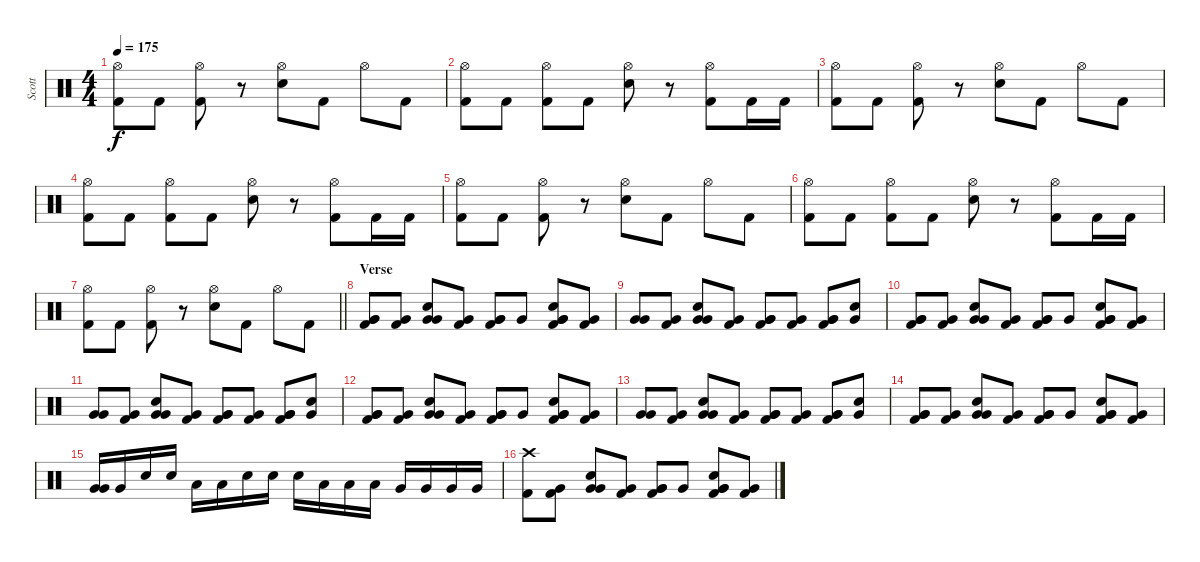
\track ("Scott" "Scott") {instrument percussion}
\staff {score}
\articulation defaults
\ts (4 4)
\tempo 175
\clef neutral
\ks c
("Hi-Hat (open)" "Kick (hit) 2").8{dy f} "Kick (hit) 2".8 ("Hi-Hat (open)" "Kick (hit) 2").8 r.8 ("Hi-Hat (open)" "Electric Snare (hit)").8 "Kick (hit) 2".8 "Hi-Hat (open)".8 "Kick (hit) 2".8 |
("Hi-Hat (open)" "Kick (hit) 2").8 "Kick (hit) 2".8 ("Hi-Hat (open)" "Kick (hit) 2").8 "Kick (hit) 2".8 ("Hi-Hat (open)" "Electric Snare (hit)").8 r.8 ("Hi-Hat (open)" "Kick (hit) 2").8 "Kick (hit) 2".16 "Kick (hit) 2".16 |
("Hi-Hat (open)" "Kick (hit) 2").8 "Kick (hit) 2".8 ("Hi-Hat (open)" "Kick (hit) 2").8 r.8 ("Hi-Hat (open)" "Electric Snare (hit)").8 "Kick (hit) 2".8 "Hi-Hat (open)".8 "Kick (hit) 2".8 |
("Hi-Hat (open)" "Kick (hit) 2").8 "Kick (hit) 2".8 ("Hi-Hat (open)" "Kick (hit) 2").8 "Kick (hit) 2".8 ("Hi-Hat (open)" "Electric Snare (hit)").8 r.8 ("Hi-Hat (open)" "Kick (hit) 2").8 "Kick (hit) 2".16 "Kick (hit) 2".16 |
("Hi-Hat (open)" "Kick (hit) 2").8 "Kick (hit) 2".8 ("Hi-Hat (open)" "Kick (hit) 2").8 r.8 ("Hi-Hat (open)" "Electric Snare (hit)").8 "Kick (hit) 2".8 "Hi-Hat (open)".8 "Kick (hit) 2".8 |
("Hi-Hat (open)" "Kick (hit) 2").8 "Kick (hit) 2".8 ("Hi-Hat (open)" "Kick (hit) 2").8 "Kick (hit) 2".8 ("Hi-Hat (open)" "Electric Snare (hit)").8 r.8 ("Hi-Hat (open)" "Kick (hit) 2").8 "Kick (hit) 2".16 "Kick (hit) 2".16 |
\barLineRight lightlight
("Hi-Hat (open)" "Kick (hit) 2").8 "Kick (hit) 2".8 ("Hi-Hat (open)" "Kick (hit) 2").8 r.8 ("Hi-Hat (open)" "Electric Snare (hit)").8 "Kick (hit) 2".8 "Hi-Hat (open)".8 "Kick (hit) 2".8 |
\section ("" "Verse")
("Very Low Tom (hit)" "Very Low Tom (hit)" "Kick (hit) 2").8 ("Very Low Tom (hit)" "Kick (hit) 2").8 ("Very Low Tom (hit)" "Very Low Tom (hit)" "Electric Snare (hit)").8 ("Very Low Tom (hit)" "Kick (hit) 2").8 ("Very Low Tom (hit)" "Very Low Tom (hit)" "Kick (hit) 2").8 "Very Low Tom (hit)".8 ("Very Low Tom (hit)" "Very Low Tom (hit)" "Electric Snare (hit)" "Kick (hit) 2").8 ("Very Low Tom (hit)" "Kick (hit) 2").8 |
("Very Low Tom (hit)" "Very Low Tom (hit)").8 ("Very Low Tom (hit)" "Kick (hit) 2").8 ("Very Low Tom (hit)" "Very Low Tom (hit)" "Electric Snare (hit)").8 ("Very Low Tom (hit)" "Kick (hit) 2").8 ("Very Low Tom (hit)" "Very Low Tom (hit)" "Kick (hit) 2").8 ("Very Low Tom (hit)" "Kick (hit) 2").8 ("Very Low Tom (hit)" "Very Low Tom (hit)" "Kick (hit) 2").8 ("Very Low Tom (hit)" "Electric Snare (hit)").8 |
("Very Low Tom (hit)" "Very Low Tom (hit)" "Kick (hit) 2").8 ("Very Low Tom (hit)" "Kick (hit) 2").8 ("Very Low Tom (hit)" "Very Low Tom (hit)" "Electric Snare (hit)").8 ("Very Low Tom (hit)" "Kick (hit) 2").8 ("Very Low Tom (hit)" "Very Low Tom (hit)" "Kick (hit) 2").8 "Very Low Tom (hit)".8 ("Very Low Tom (hit)" "Very Low Tom (hit)" "Electric Snare (hit)" "Kick (hit) 2").8 ("Very Low Tom (hit)" "Kick (hit) 2").8 |
("Very Low Tom (hit)" "Very Low Tom (hit)").8 ("Very Low Tom (hit)" "Kick (hit) 2").8 ("Very Low Tom (hit)" "Very Low Tom (hit)" "Electric Snare (hit)").8 ("Very Low Tom (hit)" "Kick (hit) 2").8 ("Very Low Tom (hit)" "Very Low Tom (hit)" "Kick (hit) 2").8 ("Very Low Tom (hit)" "Kick (hit) 2").8 ("Very Low Tom (hit)" "Very Low Tom (hit)" "Kick (hit) 2").8 ("Very Low Tom (hit)" "Electric Snare (hit)").8 |
("Very Low Tom (hit)" "Very Low Tom (hit)" "Kick (hit) 2").8 ("Very Low Tom (hit)" "Kick (hit) 2").8 ("Very Low Tom (hit)" "Very Low Tom (hit)" "Electric Snare (hit)").8 ("Very Low Tom (hit)" "Kick (hit) 2").8 ("Very Low Tom (hit)" "Very Low Tom (hit)" "Kick (hit) 2").8 "Very Low Tom (hit)".8 ("Very Low Tom (hit)" "Very Low Tom (hit)" "Electric Snare (hit)" "Kick (hit) 2").8 ("Very Low Tom (hit)" "Kick (hit) 2").8 |
("Very Low Tom (hit)" "Very Low Tom (hit)").8 ("Very Low Tom (hit)" "Kick (hit) 2").8 ("Very Low Tom (hit)" "Very Low Tom (hit)" "Electric Snare (hit)").8 ("Very Low Tom (hit)" "Kick (hit) 2").8 ("Very Low Tom (hit)" "Very Low Tom (hit)" "Kick (hit) 2").8 ("Very Low Tom (hit)" "Kick (hit) 2").8 ("Very Low Tom (hit)" "Very Low Tom (hit)" "Kick (hit) 2").8 ("Very Low Tom (hit)" "Electric Snare (hit)").8 |
("Very Low Tom (hit)" "Very Low Tom (hit)" "Kick (hit) 2").8 ("Very Low Tom (hit)" "Kick (hit) 2").8 ("Very Low Tom (hit)" "Very Low Tom (hit)" "Electric Snare (hit)").8 ("Very Low Tom (hit)" "Kick (hit) 2").8 ("Very Low Tom (hit)" "Very Low Tom (hit)" "Kick (hit) 2").8 "Very Low Tom (hit)".8 ("Very Low Tom (hit)" "Very Low Tom (hit)" "Electric Snare (hit)" "Kick (hit) 2").8 ("Very Low Tom (hit)" "Kick (hit) 2").8 |
("Very Low Tom (hit)" "Very Low Tom (hit)").16 "Very Low Tom (hit)".16 "Electric Snare (hit)".16 "Electric Snare (hit)".16 "Low Tom (hit)".16 "Low Tom (hit)".16 "Electric Snare (hit)".16 "Electric Snare (hit)".16 "Electric Snare (hit)".16 "Low Tom (hit)".16 "Low Tom (hit)".16 "Low Tom (hit)".16 "Very Low Tom (hit)".16 "Very Low Tom (hit)".16 "Very Low Tom (hit)".16 "Very Low Tom (hit)".16 |
("Crash high (hit)" "Kick (hit) 2").8 ("Very Low Tom (hit)" "Kick (hit) 2").8 ("Very Low Tom (hit)" "Very Low Tom (hit)" "Electric Snare (hit)").8 ("Very Low Tom (hit)" "Kick (hit) 2").8 ("Very Low Tom (hit)" "Very Low Tom (hit)" "Kick (hit) 2").8 "Very Low Tom (hit)".8 ("Very Low Tom (hit)" "Very Low Tom (hit)" "Electric Snare (hit)" "Kick (hit) 2").8 ("Very Low Tom (hit)" "Kick (hit) 2").8
